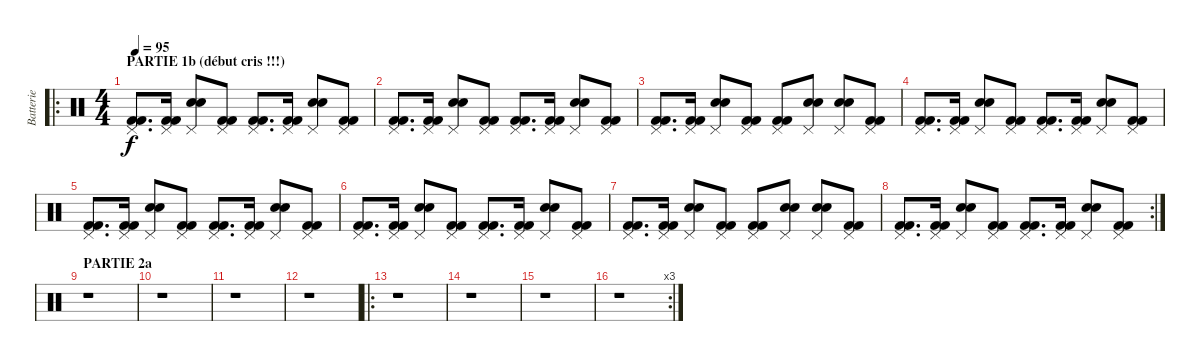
\track ("Batterie" "Batterie") {instrument percussion}
\staff {score}
\articulation defaults
\ro
\ts (4 4)
\section ("" "PARTIE 1b (début cris !!!)")
\tempo 95
\clef neutral
\ks c
("Pedal Hi-Hat (hit)" "Kick (hit) 2" "Kick (hit) 2").8{d dy f} ("Pedal Hi-Hat (hit)" "Kick (hit) 2" "Kick (hit) 2").16 ("Pedal Hi-Hat (hit)" "Electric Snare (hit)" "Electric Snare (hit)").8 ("Pedal Hi-Hat (hit)" "Kick (hit) 2" "Kick (hit) 2").8 ("Pedal Hi-Hat (hit)" "Kick (hit) 2" "Kick (hit) 2").8{d} ("Pedal Hi-Hat (hit)" "Kick (hit) 2" "Kick (hit) 2").16 ("Pedal Hi-Hat (hit)" "Electric Snare (hit)" "Electric Snare (hit)").8 ("Pedal Hi-Hat (hit)" "Kick (hit) 2" "Kick (hit) 2").8 |
("Pedal Hi-Hat (hit)" "Kick (hit) 2" "Kick (hit) 2").8{d} ("Pedal Hi-Hat (hit)" "Kick (hit) 2" "Kick (hit) 2").16 ("Pedal Hi-Hat (hit)" "Electric Snare (hit)" "Electric Snare (hit)").8 ("Pedal Hi-Hat (hit)" "Kick (hit) 2" "Kick (hit) 2").8 ("Pedal Hi-Hat (hit)" "Kick (hit) 2" "Kick (hit) 2").8{d} ("Pedal Hi-Hat (hit)" "Kick (hit) 2" "Kick (hit) 2").16 ("Pedal Hi-Hat (hit)" "Electric Snare (hit)" "Electric Snare (hit)").8 ("Pedal Hi-Hat (hit)" "Kick (hit) 2" "Kick (hit) 2").8 |
("Pedal Hi-Hat (hit)" "Kick (hit) 2" "Kick (hit) 2").8{d} ("Pedal Hi-Hat (hit)" "Kick (hit) 2" "Kick (hit) 2").16 ("Pedal Hi-Hat (hit)" "Electric Snare (hit)" "Electric Snare (hit)").8 ("Pedal Hi-Hat (hit)" "Kick (hit) 2" "Kick (hit) 2").8 ("Pedal Hi-Hat (hit)" "Kick (hit) 2" "Kick (hit) 2").8 ("Pedal Hi-Hat (hit)" "Electric Snare (hit)" "Electric Snare (hit)").8 ("Pedal Hi-Hat (hit)" "Electric Snare (hit)" "Electric Snare (hit)").8 ("Pedal Hi-Hat (hit)" "Kick (hit) 2" "Kick (hit) 2").8 |
("Pedal Hi-Hat (hit)" "Kick (hit) 2" "Kick (hit) 2").8{d} ("Pedal Hi-Hat (hit)" "Kick (hit) 2" "Kick (hit) 2").16 ("Pedal Hi-Hat (hit)" "Electric Snare (hit)" "Electric Snare (hit)").8 ("Pedal Hi-Hat (hit)" "Kick (hit) 2" "Kick (hit) 2").8 ("Pedal Hi-Hat (hit)" "Kick (hit) 2" "Kick (hit) 2").8{d} ("Pedal Hi-Hat (hit)" "Kick (hit) 2" "Kick (hit) 2").16 ("Pedal Hi-Hat (hit)" "Electric Snare (hit)" "Electric Snare (hit)").8 ("Pedal Hi-Hat (hit)" "Kick (hit) 2" "Kick (hit) 2").8 |
("Pedal Hi-Hat (hit)" "Kick (hit) 2" "Kick (hit) 2").8{d} ("Pedal Hi-Hat (hit)" "Kick (hit) 2" "Kick (hit) 2").16 ("Pedal Hi-Hat (hit)" "Electric Snare (hit)" "Electric Snare (hit)").8 ("Pedal Hi-Hat (hit)" "Kick (hit) 2" "Kick (hit) 2").8 ("Pedal Hi-Hat (hit)" "Kick (hit) 2" "Kick (hit) 2").8{d} ("Pedal Hi-Hat (hit)" "Kick (hit) 2" "Kick (hit) 2").16 ("Pedal Hi-Hat (hit)" "Electric Snare (hit)" "Electric Snare (hit)").8 ("Pedal Hi-Hat (hit)" "Kick (hit) 2" "Kick (hit) 2").8 |
("Pedal Hi-Hat (hit)" "Kick (hit) 2" "Kick (hit) 2").8{d} ("Pedal Hi-Hat (hit)" "Kick (hit) 2" "Kick (hit) 2").16 ("Pedal Hi-Hat (hit)" "Electric Snare (hit)" "Electric Snare (hit)").8 ("Pedal Hi-Hat (hit)" "Kick (hit) 2" "Kick (hit) 2").8 ("Pedal Hi-Hat (hit)" "Kick (hit) 2" "Kick (hit) 2").8{d} ("Pedal Hi-Hat (hit)" "Kick (hit) 2" "Kick (hit) 2").16 ("Pedal Hi-Hat (hit)" "Electric Snare (hit)" "Electric Snare (hit)").8 ("Pedal Hi-Hat (hit)" "Kick (hit) 2" "Kick (hit) 2").8 |
("Pedal Hi-Hat (hit)" "Kick (hit) 2" "Kick (hit) 2").8{d} ("Pedal Hi-Hat (hit)" "Kick (hit) 2" "Kick (hit) 2").16 ("Pedal Hi-Hat (hit)" "Electric Snare (hit)" "Electric Snare (hit)").8 ("Pedal Hi-Hat (hit)" "Kick (hit) 2" "Kick (hit) 2").8 ("Pedal Hi-Hat (hit)" "Kick (hit) 2" "Kick (hit) 2").8 ("Pedal Hi-Hat (hit)" "Electric Snare (hit)" "Electric Snare (hit)").8 ("Pedal Hi-Hat (hit)" "Electric Snare (hit)" "Electric Snare (hit)").8 ("Pedal Hi-Hat (hit)" "Kick (hit) 2" "Kick (hit) 2").8 |
\rc 2
("Pedal Hi-Hat (hit)" "Kick (hit) 2" "Kick (hit) 2").8{d} ("Pedal Hi-Hat (hit)" "Kick (hit) 2" "Kick (hit) 2").16 ("Pedal Hi-Hat (hit)" "Electric Snare (hit)" "Electric Snare (hit)").8 ("Pedal Hi-Hat (hit)" "Kick (hit) 2" "Kick (hit) 2").8 ("Pedal Hi-Hat (hit)" "Kick (hit) 2" "Kick (hit) 2").8{d} ("Pedal Hi-Hat (hit)" "Kick (hit) 2" "Kick (hit) 2").16 ("Pedal Hi-Hat (hit)" "Electric Snare (hit)" "Electric Snare (hit)").8 ("Pedal Hi-Hat (hit)" "Kick (hit) 2" "Kick (hit) 2").8 |
\section ("" "PARTIE 2a")
r.1 |
r.1 |
r.1 |
r.1 |
\ro
r.1 |
r.1 |
r.1 |
\rc 3
r.1
